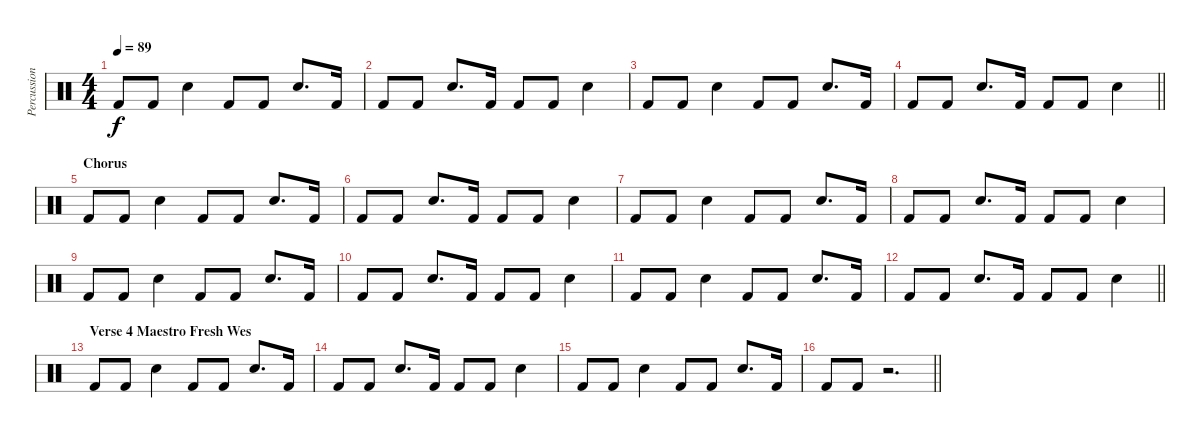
\track ("Percussion" "Percussion") {instrument percussion}
\staff {score}
\articulation defaults
\ts (4 4)
\tempo 89
\clef neutral
\ks c "Kick (hit) 2".8{dy f} "Kick (hit) 2".8 "Snare (hit) 2".4 "Kick (hit) 2".8 "Kick (hit) 2".8 "Snare (hit) 2".8{d} "Kick (hit) 2".16
|
"Kick (hit) 2".8 "Kick (hit) 2".8 "Snare (hit) 2".8{d} "Kick (hit) 2".16 "Kick (hit) 2".8 "Kick (hit) 2".8 "Snare (hit) 2".4 |
"Kick (hit) 2".8 "Kick (hit) 2".8 "Snare (hit) 2".4 "Kick (hit) 2".8 "Kick (hit) 2".8 "Snare (hit) 2".8{d} "Kick (hit) 2".16 |
\barLineRight lightlight "Kick (hit) 2".8 "Kick (hit) 2".8 "Snare (hit) 2".8{d} "Kick (hit) 2".16 "Kick (hit) 2".8 "Kick (hit) 2".8 "Snare (hit) 2".4
|
\section ("" "Chorus")
"Kick (hit) 2".8 "Kick (hit) 2".8 "Snare (hit) 2".4 "Kick (hit) 2".8 "Kick (hit) 2".8 "Snare (hit) 2".8{d} "Kick (hit) 2".16 |
"Kick (hit) 2".8 "Kick (hit) 2".8 "Snare (hit) 2".8{d} "Kick (hit) 2".16 "Kick (hit) 2".8 "Kick (hit) 2".8 "Snare (hit) 2".4 |
"Kick (hit) 2".8 "Kick (hit) 2".8 "Snare (hit) 2".4 "Kick (hit) 2".8 "Kick (hit) 2".8 "Snare (hit) 2".8{d} "Kick (hit) 2".16 |
"Kick (hit) 2".8 "Kick (hit) 2".8 "Snare (hit) 2".8{d} "Kick (hit) 2".16 "Kick (hit) 2".8 "Kick (hit) 2".8 "Snare (hit) 2".4 |
"Kick (hit) 2".8 "Kick (hit) 2".8 "Snare (hit) 2".4 "Kick (hit) 2".8 "Kick (hit) 2".8 "Snare (hit) 2".8{d} "Kick (hit) 2".16 |
"Kick (hit) 2".8 "Kick (hit) 2".8 "Snare (hit) 2".8{d} "Kick (hit) 2".16 "Kick (hit) 2".8 "Kick (hit) 2".8 "Snare (hit) 2".4 |
"Kick (hit) 2".8 "Kick (hit) 2".8 "Snare (hit) 2".4 "Kick (hit) 2".8 "Kick (hit) 2".8 "Snare (hit) 2".8{d} "Kick (hit) 2".16 |
\barLineRight lightlight "Kick (hit) 2".8 "Kick (hit) 2".8 "Snare (hit) 2".8{d} "Kick (hit) 2".16 "Kick (hit) 2".8 "Kick (hit) 2".8 "Snare (hit) 2".4
|
\section ("" "Verse 4 Maestro Fresh Wes")
"Kick (hit) 2".8 "Kick (hit) 2".8 "Snare (hit) 2".4 "Kick (hit) 2".8 "Kick (hit) 2".8 "Snare (hit) 2".8{d} "Kick (hit) 2".16 |
"Kick (hit) 2".8 "Kick (hit) 2".8 "Snare (hit) 2".8{d} "Kick (hit) 2".16 "Kick (hit) 2".8 "Kick (hit) 2".8 "Snare (hit) 2".4 |
"Kick (hit) 2".8 "Kick (hit) 2".8 "Snare (hit) 2".4 "Kick (hit) 2".8 "Kick (hit) 2".8 "Snare (hit) 2".8{d} "Kick (hit) 2".16 |
\barLineRight lightlight "Kick (hit) 2".8 "Kick (hit) 2".8
r.2{d}
